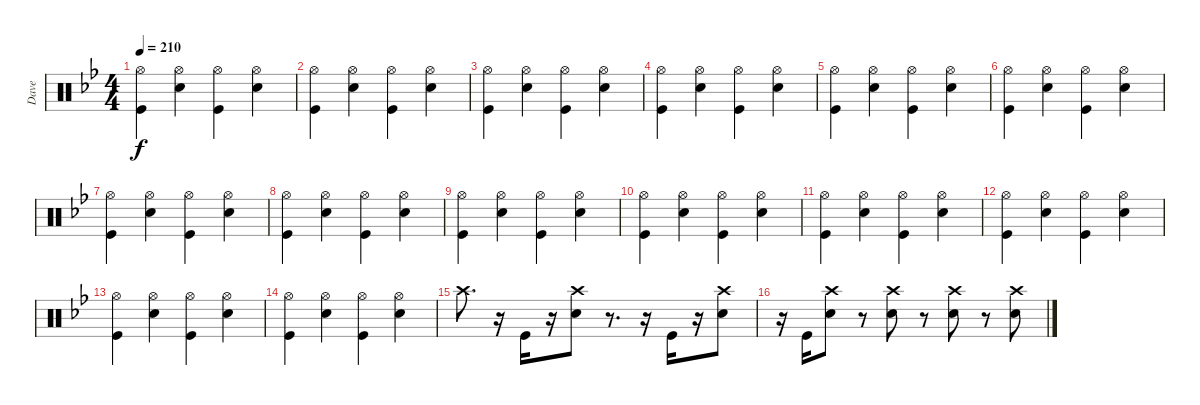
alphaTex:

\track ("Dave" "Dave") {instrument percussion}
\staff {score}
\articulation defaults
\ts (4 4)
\tempo 210
\clef neutral
\ks gminor
("Hi-Hat (open)" "Kick (hit)").4{dy f} ("Hi-Hat (open)" "Snare (hit) 2").4 ("Hi-Hat (open)" "Kick (hit)").4 ("Hi-Hat (open)" "Snare (hit) 2").4 |
("Hi-Hat (open)" "Kick (hit)").4 ("Hi-Hat (open)" "Snare (hit) 2").4 ("Hi-Hat (open)" "Kick (hit)").4 ("Hi-Hat (open)" "Snare (hit) 2").4 |
("Hi-Hat (open)" "Kick (hit)").4 ("Hi-Hat (open)" "Snare (hit) 2").4 ("Hi-Hat (open)" "Kick (hit)").4 ("Hi-Hat (open)" "Snare (hit) 2").4 |
("Hi-Hat (open)" "Kick (hit)").4 ("Hi-Hat (open)" "Snare (hit) 2").4 ("Hi-Hat (open)" "Kick (hit)").4 ("Hi-Hat (open)" "Snare (hit) 2").4 |
("Hi-Hat (open)" "Kick (hit)").4 ("Hi-Hat (open)" "Snare (hit) 2").4 ("Hi-Hat (open)" "Kick (hit)").4 ("Hi-Hat (open)" "Snare (hit) 2").4 |
("Hi-Hat (open)" "Kick (hit)").4 ("Hi-Hat (open)" "Snare (hit) 2").4 ("Hi-Hat (open)" "Kick (hit)").4 ("Hi-Hat (open)" "Snare (hit) 2").4 |
("Hi-Hat (open)" "Kick (hit)").4 ("Hi-Hat (open)" "Snare (hit) 2").4 ("Hi-Hat (open)" "Kick (hit)").4 ("Hi-Hat (open)" "Snare (hit) 2").4 |
("Hi-Hat (open)" "Kick (hit)").4 ("Hi-Hat (open)" "Snare (hit) 2").4 ("Hi-Hat (open)" "Kick (hit)").4 ("Hi-Hat (open)" "Snare (hit) 2").4 |
("Hi-Hat (open)" "Kick (hit)").4 ("Hi-Hat (open)" "Snare (hit) 2").4 ("Hi-Hat (open)" "Kick (hit)").4 ("Hi-Hat (open)" "Snare (hit) 2").4 |
("Hi-Hat (open)" "Kick (hit)").4 ("Hi-Hat (open)" "Snare (hit) 2").4 ("Hi-Hat (open)" "Kick (hit)").4 ("Hi-Hat (open)" "Snare (hit) 2").4 |
("Hi-Hat (open)" "Kick (hit)").4 ("Hi-Hat (open)" "Snare (hit) 2").4 ("Hi-Hat (open)" "Kick (hit)").4 ("Hi-Hat (open)" "Snare (hit) 2").4 |
("Hi-Hat (open)" "Kick (hit)").4 ("Hi-Hat (open)" "Snare (hit) 2").4 ("Hi-Hat (open)" "Kick (hit)").4 ("Hi-Hat (open)" "Snare (hit) 2").4 |
("Hi-Hat (open)" "Kick (hit)").4 ("Hi-Hat (open)" "Snare (hit) 2").4 ("Hi-Hat (open)" "Kick (hit)").4 ("Hi-Hat (open)" "Snare (hit) 2").4 |
("Hi-Hat (open)" "Kick (hit)").4 ("Hi-Hat (open)" "Snare (hit) 2").4 ("Hi-Hat (open)" "Kick (hit)").4 ("Hi-Hat (open)" "Snare (hit) 2").4 |
"Crash high (hit)".8{d} r.16 "Kick (hit)".16 r.16 ("Crash high (hit)" "Snare (hit) 2").8 r.8{d} r.16 "Kick (hit)".16 r.16 ("Crash high (hit)" "Snare (hit) 2").8 |
r.16 "Kick (hit)".16 ("Crash high (hit)" "Snare (hit) 2").8 r.8 ("Crash high (hit)" "Snare (hit) 2").8 r.8 ("Crash high (hit)" "Snare (hit) 2").8 r.8 ("Crash high (hit)" "Snare (hit) 2").8
